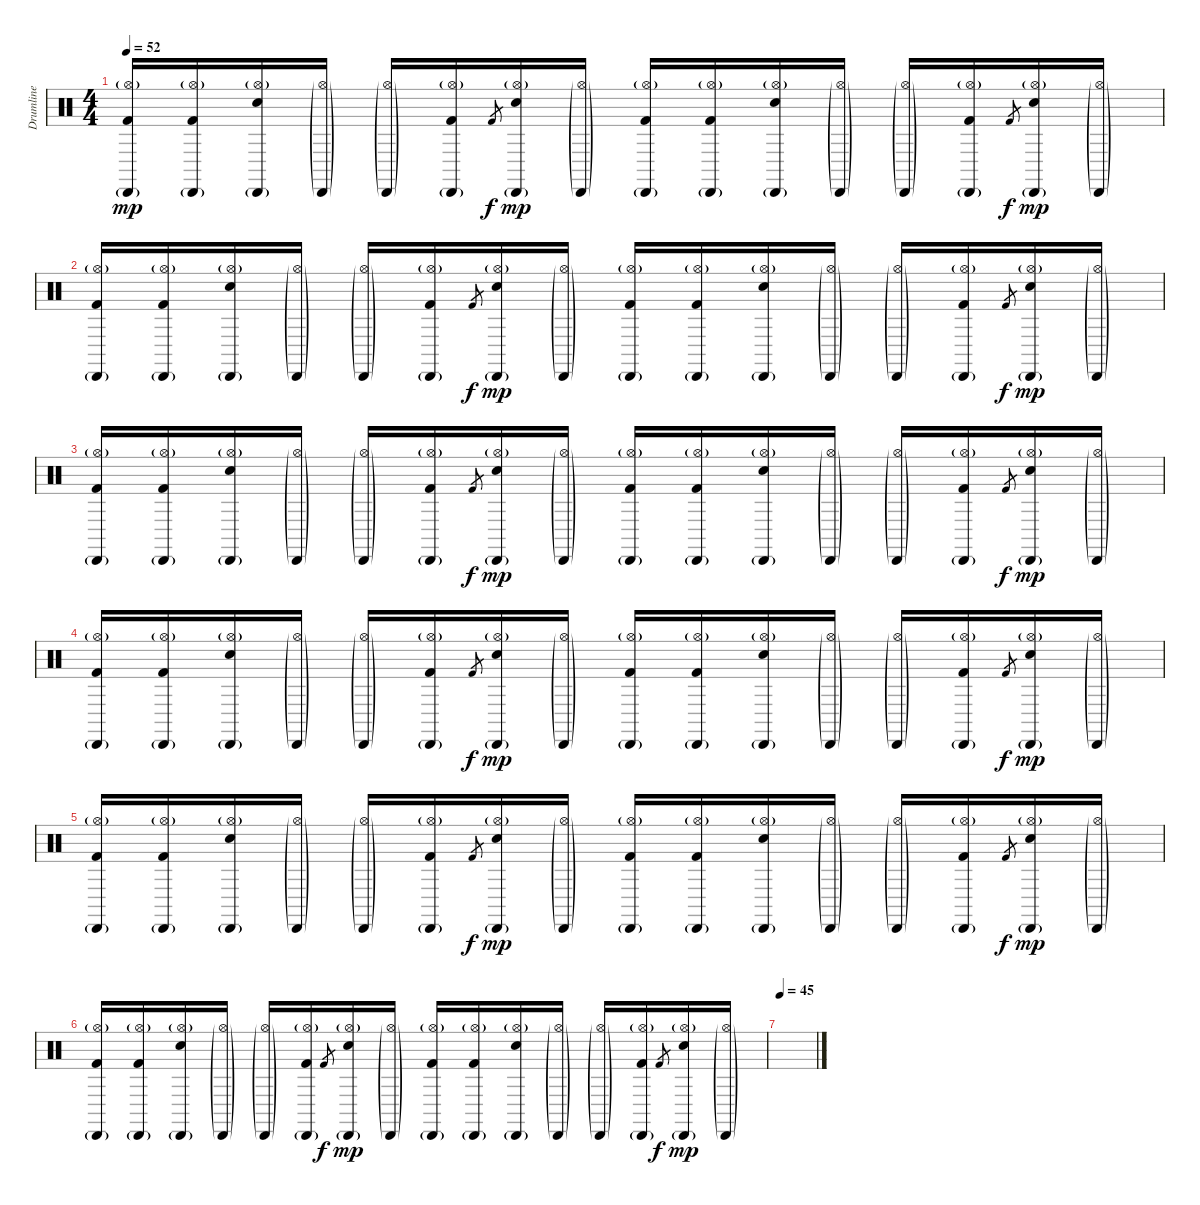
\track ("Drumline" "Drumline") {instrument percussion}
\staff {score}
\articulation defaults
\ts (4 4)
\tempo 52
\clef neutral
\ks c
("Hi-Hat (open)"{g} "Cabasa (hit)"{g} "Kick (hit) 2").16{dy mp} ("Hi-Hat (open)"{g} "Cabasa (hit)"{g} "Kick (hit) 2").16 ("Hi-Hat (open)"{g} "Cabasa (hit)"{g} "Snare (hit) 2").16 ("Hi-Hat (open)"{g} "Cabasa (hit)"{g}).16 ("Hi-Hat (open)"{g} "Cabasa (hit)"{g}).16 ("Hi-Hat (open)"{g} "Cabasa (hit)"{g} "Kick (hit) 2").16 "Kick (hit) 2".8{gr dy f} ("Hi-Hat (open)"{g} "Cabasa (hit)"{g} "Snare (hit) 2").16{dy mp} ("Hi-Hat (open)"{g} "Cabasa (hit)"{g}).16 ("Hi-Hat (open)"{g} "Cabasa (hit)"{g} "Kick (hit) 2").16 ("Hi-Hat (open)"{g} "Cabasa (hit)"{g} "Kick (hit) 2").16 ("Hi-Hat (open)"{g} "Cabasa (hit)"{g} "Snare (hit) 2").16 ("Hi-Hat (open)"{g} "Cabasa (hit)"{g}).16 ("Hi-Hat (open)"{g} "Cabasa (hit)"{g}).16 ("Hi-Hat (open)"{g} "Cabasa (hit)"{g} "Kick (hit) 2").16 "Kick (hit) 2".8{gr dy f} ("Hi-Hat (open)"{g} "Cabasa (hit)"{g} "Snare (hit) 2").16{dy mp} ("Hi-Hat (open)"{g} "Cabasa (hit)"{g}).16 |
("Hi-Hat (open)"{g} "Cabasa (hit)"{g} "Kick (hit) 2").16 ("Hi-Hat (open)"{g} "Cabasa (hit)"{g} "Kick (hit) 2").16 ("Hi-Hat (open)"{g} "Cabasa (hit)"{g} "Snare (hit) 2").16 ("Hi-Hat (open)"{g} "Cabasa (hit)"{g}).16 ("Hi-Hat (open)"{g} "Cabasa (hit)"{g}).16 ("Hi-Hat (open)"{g} "Cabasa (hit)"{g} "Kick (hit) 2").16 "Kick (hit) 2".8{gr dy f} ("Hi-Hat (open)"{g} "Cabasa (hit)"{g} "Snare (hit) 2").16{dy mp} ("Hi-Hat (open)"{g} "Cabasa (hit)"{g}).16 ("Hi-Hat (open)"{g} "Cabasa (hit)"{g} "Kick (hit) 2").16 ("Hi-Hat (open)"{g} "Cabasa (hit)"{g} "Kick (hit) 2").16 ("Hi-Hat (open)"{g} "Cabasa (hit)"{g} "Snare (hit) 2").16 ("Hi-Hat (open)"{g} "Cabasa (hit)"{g}).16 ("Hi-Hat (open)"{g} "Cabasa (hit)"{g}).16 ("Hi-Hat (open)"{g} "Cabasa (hit)"{g} "Kick (hit) 2").16 "Kick (hit) 2".8{gr dy f} ("Hi-Hat (open)"{g} "Cabasa (hit)"{g} "Snare (hit) 2").16{dy mp} ("Hi-Hat (open)"{g} "Cabasa (hit)"{g}).16 |
("Hi-Hat (open)"{g} "Cabasa (hit)"{g} "Kick (hit) 2").16 ("Hi-Hat (open)"{g} "Cabasa (hit)"{g} "Kick (hit) 2").16 ("Hi-Hat (open)"{g} "Cabasa (hit)"{g} "Snare (hit) 2").16 ("Hi-Hat (open)"{g} "Cabasa (hit)"{g}).16 ("Hi-Hat (open)"{g} "Cabasa (hit)"{g}).16 ("Hi-Hat (open)"{g} "Cabasa (hit)"{g} "Kick (hit) 2").16 "Kick (hit) 2".8{gr dy f} ("Hi-Hat (open)"{g} "Cabasa (hit)"{g} "Snare (hit) 2").16{dy mp} ("Hi-Hat (open)"{g} "Cabasa (hit)"{g}).16 ("Hi-Hat (open)"{g} "Cabasa (hit)"{g} "Kick (hit) 2").16 ("Hi-Hat (open)"{g} "Cabasa (hit)"{g} "Kick (hit) 2").16 ("Hi-Hat (open)"{g} "Cabasa (hit)"{g} "Snare (hit) 2").16 ("Hi-Hat (open)"{g} "Cabasa (hit)"{g}).16 ("Hi-Hat (open)"{g} "Cabasa (hit)"{g}).16 ("Hi-Hat (open)"{g} "Cabasa (hit)"{g} "Kick (hit) 2").16 "Kick (hit) 2".8{gr dy f} ("Hi-Hat (open)"{g} "Cabasa (hit)"{g} "Snare (hit) 2").16{dy mp} ("Hi-Hat (open)"{g} "Cabasa (hit)"{g}).16 |
("Hi-Hat (open)"{g} "Cabasa (hit)"{g} "Kick (hit) 2").16 ("Hi-Hat (open)"{g} "Cabasa (hit)"{g} "Kick (hit) 2").16 ("Hi-Hat (open)"{g} "Cabasa (hit)"{g} "Snare (hit) 2").16 ("Hi-Hat (open)"{g} "Cabasa (hit)"{g}).16 ("Hi-Hat (open)"{g} "Cabasa (hit)"{g}).16 ("Hi-Hat (open)"{g} "Cabasa (hit)"{g} "Kick (hit) 2").16 "Kick (hit) 2".8{gr dy f} ("Hi-Hat (open)"{g} "Cabasa (hit)"{g} "Snare (hit) 2").16{dy mp} ("Hi-Hat (open)"{g} "Cabasa (hit)"{g}).16 ("Hi-Hat (open)"{g} "Cabasa (hit)"{g} "Kick (hit) 2").16 ("Hi-Hat (open)"{g} "Cabasa (hit)"{g} "Kick (hit) 2").16 ("Hi-Hat (open)"{g} "Cabasa (hit)"{g} "Snare (hit) 2").16 ("Hi-Hat (open)"{g} "Cabasa (hit)"{g}).16 ("Hi-Hat (open)"{g} "Cabasa (hit)"{g}).16 ("Hi-Hat (open)"{g} "Cabasa (hit)"{g} "Kick (hit) 2").16 "Kick (hit) 2".8{gr dy f} ("Hi-Hat (open)"{g} "Cabasa (hit)"{g} "Snare (hit) 2").16{dy mp} ("Hi-Hat (open)"{g} "Cabasa (hit)"{g}).16 |
("Hi-Hat (open)"{g} "Cabasa (hit)"{g} "Kick (hit) 2").16 ("Hi-Hat (open)"{g} "Cabasa (hit)"{g} "Kick (hit) 2").16 ("Hi-Hat (open)"{g} "Cabasa (hit)"{g} "Snare (hit) 2").16 ("Hi-Hat (open)"{g} "Cabasa (hit)"{g}).16 ("Hi-Hat (open)"{g} "Cabasa (hit)"{g}).16 ("Hi-Hat (open)"{g} "Cabasa (hit)"{g} "Kick (hit) 2").16 "Kick (hit) 2".8{gr dy f} ("Hi-Hat (open)"{g} "Cabasa (hit)"{g} "Snare (hit) 2").16{dy mp} ("Hi-Hat (open)"{g} "Cabasa (hit)"{g}).16 ("Hi-Hat (open)"{g} "Cabasa (hit)"{g} "Kick (hit) 2").16 ("Hi-Hat (open)"{g} "Cabasa (hit)"{g} "Kick (hit) 2").16 ("Hi-Hat (open)"{g} "Cabasa (hit)"{g} "Snare (hit) 2").16 ("Hi-Hat (open)"{g} "Cabasa (hit)"{g}).16 ("Hi-Hat (open)"{g} "Cabasa (hit)"{g}).16 ("Hi-Hat (open)"{g} "Cabasa (hit)"{g} "Kick (hit) 2").16 "Kick (hit) 2".8{gr dy f} ("Hi-Hat (open)"{g} "Cabasa (hit)"{g} "Snare (hit) 2").16{dy mp} ("Hi-Hat (open)"{g} "Cabasa (hit)"{g}).16 |
("Hi-Hat (open)"{g} "Cabasa (hit)"{g} "Kick (hit) 2").16 ("Hi-Hat (open)"{g} "Cabasa (hit)"{g} "Kick (hit) 2").16 ("Hi-Hat (open)"{g} "Cabasa (hit)"{g} "Snare (hit) 2").16 ("Hi-Hat (open)"{g} "Cabasa (hit)"{g}).16 ("Hi-Hat (open)"{g} "Cabasa (hit)"{g}).16 ("Hi-Hat (open)"{g} "Cabasa (hit)"{g} "Kick (hit) 2").16 "Kick (hit) 2".8{gr dy f} ("Hi-Hat (open)"{g} "Cabasa (hit)"{g} "Snare (hit) 2").16{dy mp} ("Hi-Hat (open)"{g} "Cabasa (hit)"{g}).16 ("Hi-Hat (open)"{g} "Cabasa (hit)"{g} "Kick (hit) 2").16 ("Hi-Hat (open)"{g} "Cabasa (hit)"{g} "Kick (hit) 2").16 ("Hi-Hat (open)"{g} "Cabasa (hit)"{g} "Snare (hit) 2").16 ("Hi-Hat (open)"{g} "Cabasa (hit)"{g}).16 ("Hi-Hat (open)"{g} "Cabasa (hit)"{g}).16 ("Hi-Hat (open)"{g} "Cabasa (hit)"{g} "Kick (hit) 2").16 "Kick (hit) 2".8{gr dy f} ("Hi-Hat (open)"{g} "Cabasa (hit)"{g} "Snare (hit) 2").16{dy mp} ("Hi-Hat (open)"{g} "Cabasa (hit)"{g}).16 |
\tempo 45
